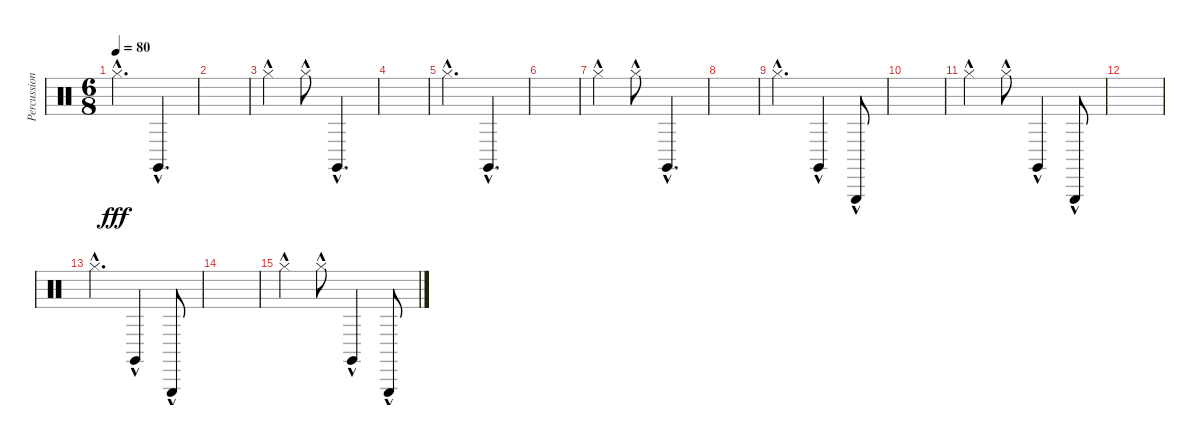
\track ("Percussion" "Percussion") {instrument percussion}
\staff {score}
\articulation defaults
\ts (6 8)
\tempo 80
\clef neutral
\ks c "Hi-Hat (closed)"{hac}.4{d dy fff} "Claves (hit)"{hac}.4{d}
|
|
"Hi-Hat (closed)"{hac}.4 "Hi-Hat (closed)"{hac}.8 "Claves (hit)"{hac}.4{d} |
|
"Hi-Hat (closed)"{hac}.4{d} "Claves (hit)"{hac}.4{d} |
|
"Hi-Hat (closed)"{hac}.4 "Hi-Hat (closed)"{hac}.8 "Claves (hit)"{hac}.4{d} |
|
"Hi-Hat (closed)"{hac}.4{d} "Claves (hit)"{hac}.4 "Triangle (hit)"{hac}.8 |
|
"Hi-Hat (closed)"{hac}.4 "Hi-Hat (closed)"{hac}.8 "Claves (hit)"{hac}.4 "Triangle (hit)"{hac}.8 |
|
"Hi-Hat (closed)"{hac}.4{d} "Claves (hit)"{hac}.4 "Triangle (hit)"{hac}.8 |
|
"Hi-Hat (closed)"{hac}.4 "Hi-Hat (closed)"{hac}.8 "Claves (hit)"{hac}.4 "Triangle (hit)"{hac}.8
